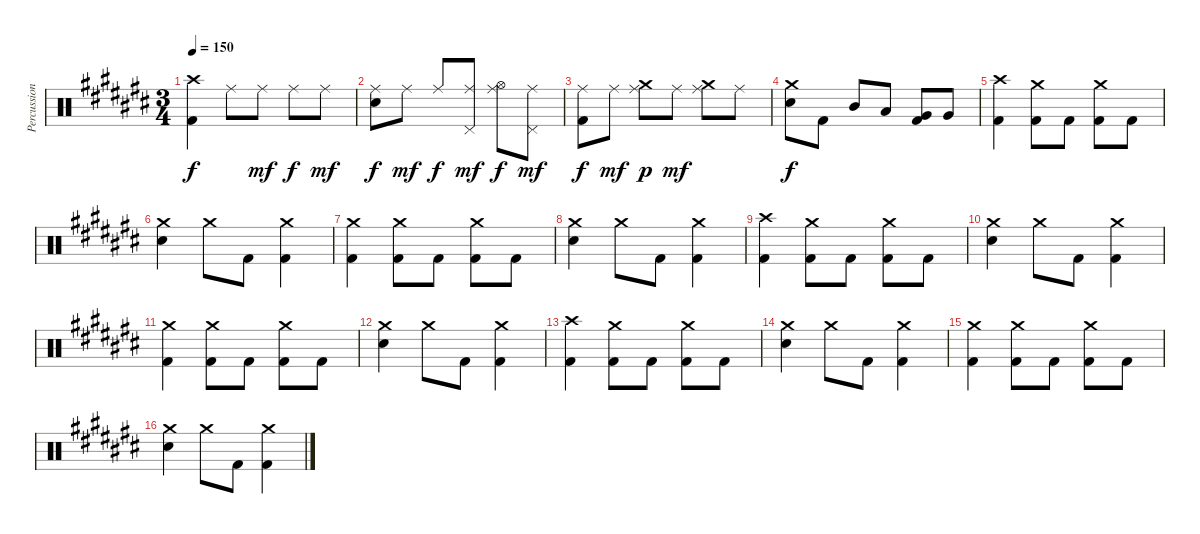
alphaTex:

\track ("Percussion" "Percussion") {instrument percussion}
\staff {score}
\articulation defaults
\ts (3 4)
\tempo 150
\clef neutral
\ks c#
("Crash high (hit)" "Kick (hit) 2").4{dy f} "Ride (middle)".8 "Ride (middle)".8{dy mf} "Ride (middle)".8{dy f} "Ride (middle)".8{dy mf} |
("Ride (middle)" "Electric Snare (hit)").8{dy f} "Ride (middle)".8{dy mf} "Ride (middle)".8{dy f} ("Ride (middle)" "Pedal Hi-Hat (hit)").8{dy mf} ("Ride (middle)" "Hi-Hat (open)").8{dy f} ("Ride (middle)" "Pedal Hi-Hat (hit)").8{dy mf} |
("Ride (middle)" "Kick (hit) 2").8{dy f} "Ride (middle)".8{dy mf} ("Ride (middle)" "Crash medium (hit)").8{dy p} "Ride (middle)".8{dy mf} ("Ride (middle)" "Crash medium (hit)").8 "Ride (middle)".8 |
("Crash medium (hit)" "Electric Snare (hit)").8{dy f} "Kick (hit) 2".8 "Mid Tom (hit)".8 "Low Tom (hit)".8 ("Very Low Tom (hit)" "Kick (hit) 2").8 "Very Low Tom (hit)".8 |
("Crash high (hit)" "Kick (hit) 2").4 ("Crash medium (hit)" "Kick (hit) 2").8 "Kick (hit) 2".8 ("Crash medium (hit)" "Kick (hit) 2").8 "Kick (hit) 2".8 |
("Crash medium (hit)" "Electric Snare (hit)").4 "Crash medium (hit)".8 "Kick (hit) 2".8 ("Crash medium (hit)" "Kick (hit) 2").4 |
("Crash medium (hit)" "Kick (hit) 2").4 ("Crash medium (hit)" "Kick (hit) 2").8 "Kick (hit) 2".8 ("Crash medium (hit)" "Kick (hit) 2").8 "Kick (hit) 2".8 |
("Crash medium (hit)" "Electric Snare (hit)").4 "Crash medium (hit)".8 "Kick (hit) 2".8 ("Crash medium (hit)" "Kick (hit) 2").4 |
("Crash high (hit)" "Kick (hit) 2").4 ("Crash medium (hit)" "Kick (hit) 2").8 "Kick (hit) 2".8 ("Crash medium (hit)" "Kick (hit) 2").8 "Kick (hit) 2".8 |
("Crash medium (hit)" "Electric Snare (hit)").4 "Crash medium (hit)".8 "Kick (hit) 2".8 ("Crash medium (hit)" "Kick (hit) 2").4 |
("Crash medium (hit)" "Kick (hit) 2").4 ("Crash medium (hit)" "Kick (hit) 2").8 "Kick (hit) 2".8 ("Crash medium (hit)" "Kick (hit) 2").8 "Kick (hit) 2".8 |
("Crash medium (hit)" "Electric Snare (hit)").4 "Crash medium (hit)".8 "Kick (hit) 2".8 ("Crash medium (hit)" "Kick (hit) 2").4 |
("Crash high (hit)" "Kick (hit) 2").4 ("Crash medium (hit)" "Kick (hit) 2").8 "Kick (hit) 2".8 ("Crash medium (hit)" "Kick (hit) 2").8 "Kick (hit) 2".8 |
("Crash medium (hit)" "Electric Snare (hit)").4 "Crash medium (hit)".8 "Kick (hit) 2".8 ("Crash medium (hit)" "Kick (hit) 2").4 |
("Crash medium (hit)" "Kick (hit) 2").4 ("Crash medium (hit)" "Kick (hit) 2").8 "Kick (hit) 2".8 ("Crash medium (hit)" "Kick (hit) 2").8 "Kick (hit) 2".8 |
("Crash medium (hit)" "Electric Snare (hit)").4 "Crash medium (hit)".8 "Kick (hit) 2".8 ("Crash medium (hit)" "Kick (hit) 2").4
